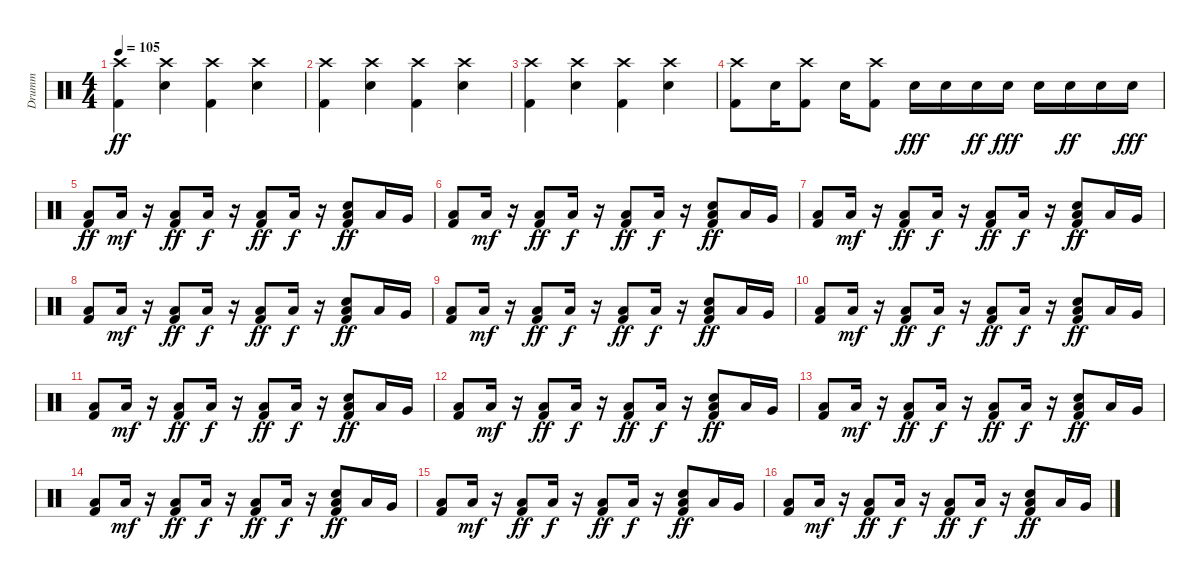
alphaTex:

\track ("Drumm" "Drumm") {instrument percussion}
\staff {score}
\articulation defaults
\ts (4 4)
\tempo 105
\clef neutral
\ks c
("Kick (hit) 2" "Crash high (hit)").4{dy ff} ("Snare (hit) 2" "Crash high (hit)").4 ("Kick (hit) 2" "Crash high (hit)").4 ("Snare (hit) 2" "Crash high (hit)").4 |
("Kick (hit) 2" "Crash high (hit)").4 ("Snare (hit) 2" "Crash high (hit)").4 ("Kick (hit) 2" "Crash high (hit)").4 ("Snare (hit) 2" "Crash high (hit)").4 |
("Kick (hit) 2" "Crash high (hit)").4 ("Snare (hit) 2" "Crash high (hit)").4 ("Kick (hit) 2" "Crash high (hit)").4 ("Snare (hit) 2" "Crash high (hit)").4 |
("Kick (hit) 2" "Crash high (hit)").8 "Snare (hit) 2".16 ("Kick (hit) 2" "Crash high (hit)").8 "Snare (hit) 2".16 ("Kick (hit) 2" "Crash high (hit)").8 "Snare (hit) 2".16{dy fff} "Snare (hit) 2".16 "Snare (hit) 2".16{dy ff} "Snare (hit) 2".16{dy fff} "Snare (hit) 2".16 "Snare (hit) 2".16{dy ff} "Snare (hit) 2".16 "Snare (hit) 2".16{dy fff} |
("Low Floor Tom (hit)" "Kick (hit) 2").8{dy ff} "Low Floor Tom (hit)".16{dy mf} r.16 ("Low Floor Tom (hit)" "Kick (hit) 2").8{dy ff} "Low Floor Tom (hit)".16{dy f} r.16 ("Low Floor Tom (hit)" "Kick (hit) 2").8{dy ff} "Low Floor Tom (hit)".16{dy f} r.16 ("Low Floor Tom (hit)" "Hand Clap (hit)" "Kick (hit) 2").8{dy ff} "Low Tom (hit)".16 "Very Low Tom (hit)".16 |
("Low Floor Tom (hit)" "Kick (hit) 2").8 "Low Floor Tom (hit)".16{dy mf} r.16 ("Low Floor Tom (hit)" "Kick (hit) 2").8{dy ff} "Low Floor Tom (hit)".16{dy f} r.16 ("Low Floor Tom (hit)" "Kick (hit) 2").8{dy ff} "Low Floor Tom (hit)".16{dy f} r.16 ("Low Floor Tom (hit)" "Hand Clap (hit)" "Kick (hit) 2").8{dy ff} "Low Tom (hit)".16 "Very Low Tom (hit)".16 |
("Low Floor Tom (hit)" "Kick (hit) 2").8 "Low Floor Tom (hit)".16{dy mf} r.16 ("Low Floor Tom (hit)" "Kick (hit) 2").8{dy ff} "Low Floor Tom (hit)".16{dy f} r.16 ("Low Floor Tom (hit)" "Kick (hit) 2").8{dy ff} "Low Floor Tom (hit)".16{dy f} r.16 ("Low Floor Tom (hit)" "Hand Clap (hit)" "Kick (hit) 2").8{dy ff} "Low Tom (hit)".16 "Very Low Tom (hit)".16 |
("Low Floor Tom (hit)" "Kick (hit) 2").8 "Low Floor Tom (hit)".16{dy mf} r.16 ("Low Floor Tom (hit)" "Kick (hit) 2").8{dy ff} "Low Floor Tom (hit)".16{dy f} r.16 ("Low Floor Tom (hit)" "Kick (hit) 2").8{dy ff} "Low Floor Tom (hit)".16{dy f} r.16 ("Low Floor Tom (hit)" "Hand Clap (hit)" "Kick (hit) 2").8{dy ff} "Low Tom (hit)".16 "Very Low Tom (hit)".16 |
("Low Floor Tom (hit)" "Kick (hit) 2").8 "Low Floor Tom (hit)".16{dy mf} r.16 ("Low Floor Tom (hit)" "Kick (hit) 2").8{dy ff} "Low Floor Tom (hit)".16{dy f} r.16 ("Low Floor Tom (hit)" "Kick (hit) 2").8{dy ff} "Low Floor Tom (hit)".16{dy f} r.16 ("Low Floor Tom (hit)" "Hand Clap (hit)" "Kick (hit) 2").8{dy ff} "Low Tom (hit)".16 "Very Low Tom (hit)".16 |
("Low Floor Tom (hit)" "Kick (hit) 2").8 "Low Floor Tom (hit)".16{dy mf} r.16 ("Low Floor Tom (hit)" "Kick (hit) 2").8{dy ff} "Low Floor Tom (hit)".16{dy f} r.16 ("Low Floor Tom (hit)" "Kick (hit) 2").8{dy ff} "Low Floor Tom (hit)".16{dy f} r.16 ("Low Floor Tom (hit)" "Hand Clap (hit)" "Kick (hit) 2").8{dy ff} "Low Tom (hit)".16 "Very Low Tom (hit)".16 |
("Low Floor Tom (hit)" "Kick (hit) 2").8 "Low Floor Tom (hit)".16{dy mf} r.16 ("Low Floor Tom (hit)" "Kick (hit) 2").8{dy ff} "Low Floor Tom (hit)".16{dy f} r.16 ("Low Floor Tom (hit)" "Kick (hit) 2").8{dy ff} "Low Floor Tom (hit)".16{dy f} r.16 ("Low Floor Tom (hit)" "Hand Clap (hit)" "Kick (hit) 2").8{dy ff} "Low Tom (hit)".16 "Very Low Tom (hit)".16 |
("Low Floor Tom (hit)" "Kick (hit) 2").8 "Low Floor Tom (hit)".16{dy mf} r.16 ("Low Floor Tom (hit)" "Kick (hit) 2").8{dy ff} "Low Floor Tom (hit)".16{dy f} r.16 ("Low Floor Tom (hit)" "Kick (hit) 2").8{dy ff} "Low Floor Tom (hit)".16{dy f} r.16 ("Low Floor Tom (hit)" "Hand Clap (hit)" "Kick (hit) 2").8{dy ff} "Low Tom (hit)".16 "Very Low Tom (hit)".16 |
("Low Floor Tom (hit)" "Kick (hit) 2").8 "Low Floor Tom (hit)".16{dy mf} r.16 ("Low Floor Tom (hit)" "Kick (hit) 2").8{dy ff} "Low Floor Tom (hit)".16{dy f} r.16 ("Low Floor Tom (hit)" "Kick (hit) 2").8{dy ff} "Low Floor Tom (hit)".16{dy f} r.16 ("Low Floor Tom (hit)" "Hand Clap (hit)" "Kick (hit) 2").8{dy ff} "Low Tom (hit)".16 "Very Low Tom (hit)".16 |
("Low Floor Tom (hit)" "Kick (hit) 2").8 "Low Floor Tom (hit)".16{dy mf} r.16 ("Low Floor Tom (hit)" "Kick (hit) 2").8{dy ff} "Low Floor Tom (hit)".16{dy f} r.16 ("Low Floor Tom (hit)" "Kick (hit) 2").8{dy ff} "Low Floor Tom (hit)".16{dy f} r.16 ("Low Floor Tom (hit)" "Hand Clap (hit)" "Kick (hit) 2").8{dy ff} "Low Tom (hit)".16 "Very Low Tom (hit)".16 |
("Low Floor Tom (hit)" "Kick (hit) 2").8 "Low Floor Tom (hit)".16{dy mf} r.16 ("Low Floor Tom (hit)" "Kick (hit) 2").8{dy ff} "Low Floor Tom (hit)".16{dy f} r.16 ("Low Floor Tom (hit)" "Kick (hit) 2").8{dy ff} "Low Floor Tom (hit)".16{dy f} r.16 ("Low Floor Tom (hit)" "Hand Clap (hit)" "Kick (hit) 2").8{dy ff} "Low Tom (hit)".16 "Very Low Tom (hit)".16 |
("Low Floor Tom (hit)" "Kick (hit) 2").8 "Low Floor Tom (hit)".16{dy mf} r.16 ("Low Floor Tom (hit)" "Kick (hit) 2").8{dy ff} "Low Floor Tom (hit)".16{dy f} r.16 ("Low Floor Tom (hit)" "Kick (hit) 2").8{dy ff} "Low Floor Tom (hit)".16{dy f} r.16 ("Low Floor Tom (hit)" "Hand Clap (hit)" "Kick (hit) 2").8{dy ff} "Low Tom (hit)".16 "Very Low Tom (hit)".16
